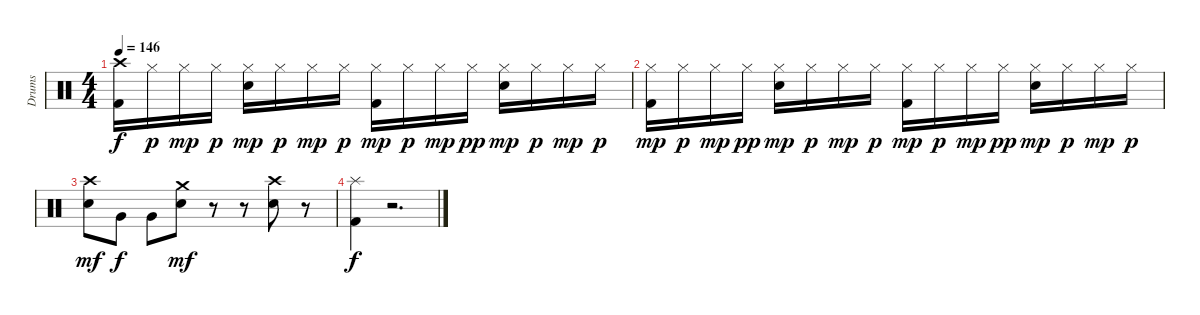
\track ("Drums" "Drums") {instrument percussion}
\staff {score}
\articulation defaults
\ts (4 4)
\tempo 146
\clef neutral
\ks c
("Crash high (hit)" "Kick (hit) 2").16{dy f} "Hi-Hat (closed)".16{dy p} "Hi-Hat (closed)".16{dy mp} "Hi-Hat (closed)".16{dy p} ("Hi-Hat (closed)" "Electric Snare (hit)").16{dy mp} "Hi-Hat (closed)".16{dy p} "Hi-Hat (closed)".16{dy mp} "Hi-Hat (closed)".16{dy p} ("Hi-Hat (closed)" "Kick (hit) 2").16{dy mp} "Hi-Hat (closed)".16{dy p} "Hi-Hat (closed)".16{dy mp} "Hi-Hat (closed)".16{dy pp} ("Hi-Hat (closed)" "Electric Snare (hit)").16{dy mp} "Hi-Hat (closed)".16{dy p} "Hi-Hat (closed)".16{dy mp} "Hi-Hat (closed)".16{dy p} |
("Hi-Hat (closed)" "Kick (hit) 2").16{dy mp} "Hi-Hat (closed)".16{dy p} "Hi-Hat (closed)".16{dy mp} "Hi-Hat (closed)".16{dy pp} ("Hi-Hat (closed)" "Electric Snare (hit)").16{dy mp} "Hi-Hat (closed)".16{dy p} "Hi-Hat (closed)".16{dy mp} "Hi-Hat (closed)".16{dy p} ("Hi-Hat (closed)" "Kick (hit) 2").16{dy mp} "Hi-Hat (closed)".16{dy p} "Hi-Hat (closed)".16{dy mp} "Hi-Hat (closed)".16{dy pp} ("Hi-Hat (closed)" "Electric Snare (hit)").16{dy mp} "Hi-Hat (closed)".16{dy p} "Hi-Hat (closed)".16{dy mp} "Hi-Hat (closed)".16{dy p} |
("Crash high (hit)" "Electric Snare (hit)").8{dy mf} "Very Low Tom (hit)".8{dy f} "Very Low Tom (hit)".8 ("Crash medium (hit)" "Electric Snare (hit)").8{dy mf} r.8 r.8 ("Crash high (hit)" "Electric Snare (hit)").8 r.8 |
("Splash (hit)" "Kick (hit) 2").4{dy f} r.2{d}
